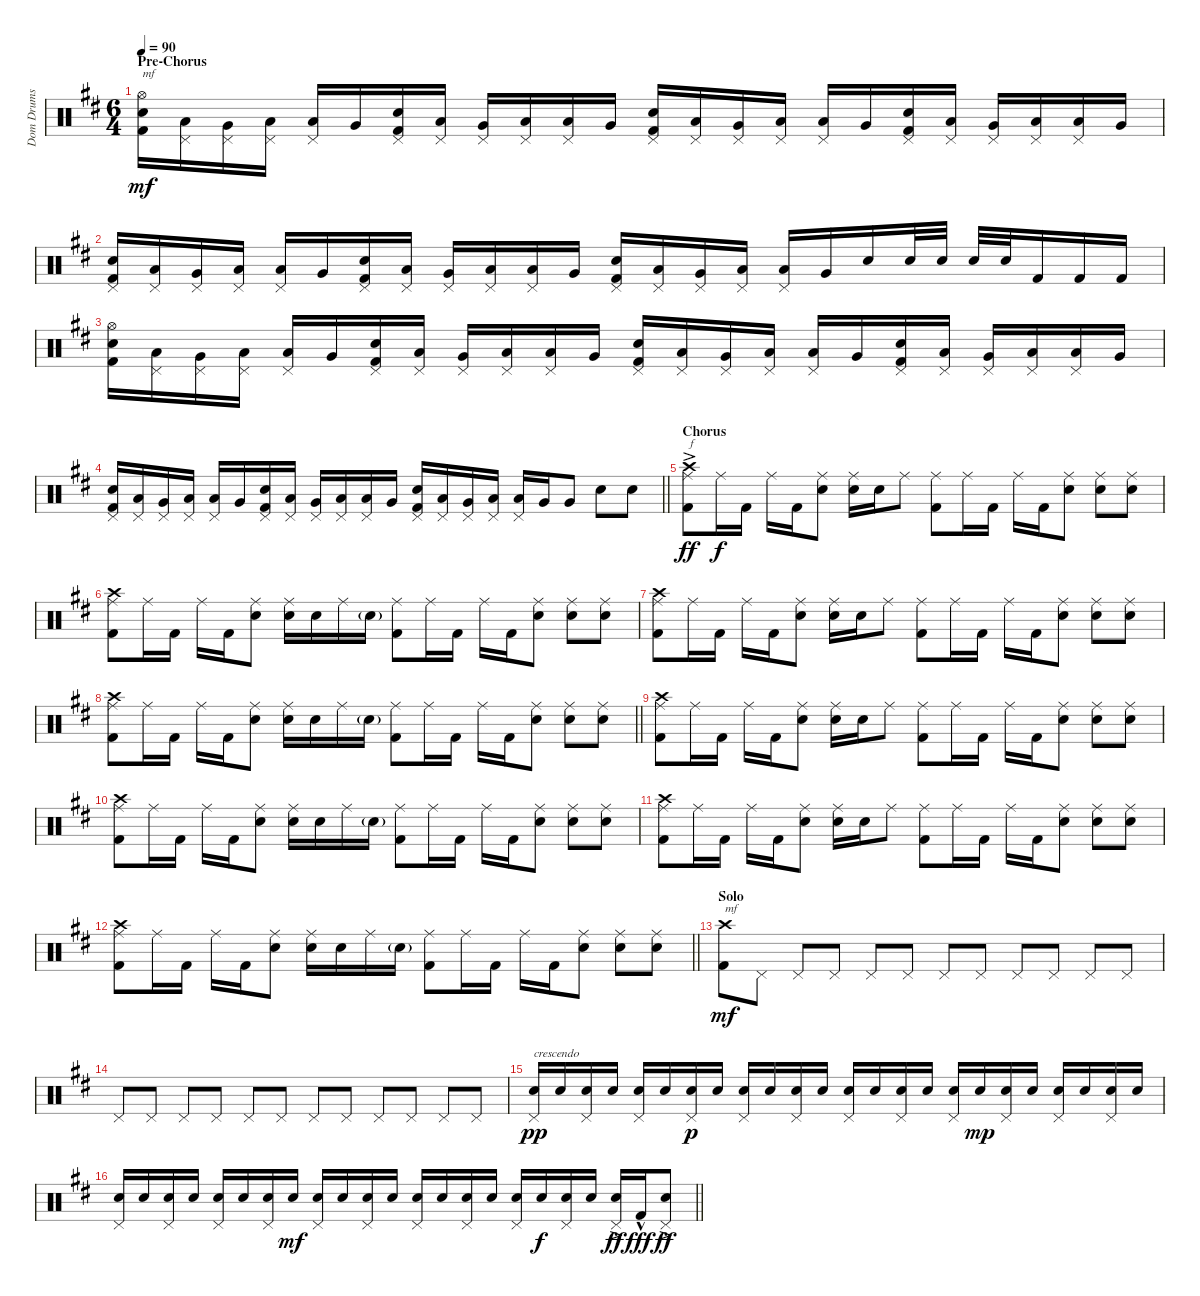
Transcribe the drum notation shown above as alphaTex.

\track ("Dom Drums" "Dom Drums") {instrument percussion}
\staff {score}
\articulation defaults
\ts (6 4)
\section ("" "Pre-Chorus")
\tempo 90
\clef neutral
\ks bminor
("Hi-Hat (open)" "Electric Snare (hit)" "Kick (hit) 2").16{txt "mf" dy mf} ("Pedal Hi-Hat (hit)" "Low Floor Tom (hit)").16 ("Pedal Hi-Hat (hit)" "Very Low Tom (hit)").16 ("Pedal Hi-Hat (hit)" "Low Tom (hit)").16 ("Pedal Hi-Hat (hit)" "Low Floor Tom (hit)").16 "Very Low Tom (hit)".16 ("Pedal Hi-Hat (hit)" "Electric Snare (hit)" "Kick (hit) 2").16 ("Pedal Hi-Hat (hit)" "Low Floor Tom (hit)").16 ("Pedal Hi-Hat (hit)" "Very Low Tom (hit)").16 ("Pedal Hi-Hat (hit)" "Low Tom (hit)").16 ("Pedal Hi-Hat (hit)" "Low Floor Tom (hit)").16 "Very Low Tom (hit)".16 ("Pedal Hi-Hat (hit)" "Electric Snare (hit)" "Kick (hit) 2").16 ("Pedal Hi-Hat (hit)" "Low Floor Tom (hit)").16 ("Pedal Hi-Hat (hit)" "Very Low Tom (hit)").16 ("Pedal Hi-Hat (hit)" "Low Tom (hit)").16 ("Pedal Hi-Hat (hit)" "Low Floor Tom (hit)").16 "Very Low Tom (hit)".16 ("Pedal Hi-Hat (hit)" "Electric Snare (hit)" "Kick (hit) 2").16 ("Pedal Hi-Hat (hit)" "Low Floor Tom (hit)").16 ("Pedal Hi-Hat (hit)" "Very Low Tom (hit)").16 ("Pedal Hi-Hat (hit)" "Low Tom (hit)").16 ("Pedal Hi-Hat (hit)" "Low Floor Tom (hit)").16 "Very Low Tom (hit)".16 |
("Pedal Hi-Hat (hit)" "Electric Snare (hit)" "Kick (hit) 2").16 ("Pedal Hi-Hat (hit)" "Low Floor Tom (hit)").16 ("Pedal Hi-Hat (hit)" "Very Low Tom (hit)").16 ("Pedal Hi-Hat (hit)" "Low Tom (hit)").16 ("Pedal Hi-Hat (hit)" "Low Floor Tom (hit)").16 "Very Low Tom (hit)".16 ("Pedal Hi-Hat (hit)" "Electric Snare (hit)" "Kick (hit) 2").16 ("Pedal Hi-Hat (hit)" "Low Floor Tom (hit)").16 ("Pedal Hi-Hat (hit)" "Very Low Tom (hit)").16 ("Pedal Hi-Hat (hit)" "Low Tom (hit)").16 ("Pedal Hi-Hat (hit)" "Low Floor Tom (hit)").16 "Very Low Tom (hit)".16 ("Pedal Hi-Hat (hit)" "Electric Snare (hit)" "Kick (hit) 2").16 ("Pedal Hi-Hat (hit)" "Low Floor Tom (hit)").16 ("Pedal Hi-Hat (hit)" "Very Low Tom (hit)").16 ("Pedal Hi-Hat (hit)" "Low Tom (hit)").16 ("Pedal Hi-Hat (hit)" "Low Floor Tom (hit)").16 "Very Low Tom (hit)".16 "Electric Snare (hit)".16 "Electric Snare (hit)".32 "Electric Snare (hit)".32 "Electric Snare (hit)".32 "Electric Snare (hit)".32 "Kick (hit) 2".16 "Kick (hit) 2".16 "Kick (hit) 2".16 |
("Hi-Hat (open)" "Electric Snare (hit)" "Kick (hit) 2").16 ("Pedal Hi-Hat (hit)" "Low Floor Tom (hit)").16 ("Pedal Hi-Hat (hit)" "Very Low Tom (hit)").16 ("Pedal Hi-Hat (hit)" "Low Tom (hit)").16 ("Pedal Hi-Hat (hit)" "Low Floor Tom (hit)").16 "Very Low Tom (hit)".16 ("Pedal Hi-Hat (hit)" "Electric Snare (hit)" "Kick (hit) 2").16 ("Pedal Hi-Hat (hit)" "Low Floor Tom (hit)").16 ("Pedal Hi-Hat (hit)" "Very Low Tom (hit)").16 ("Pedal Hi-Hat (hit)" "Low Tom (hit)").16 ("Pedal Hi-Hat (hit)" "Low Floor Tom (hit)").16 "Very Low Tom (hit)".16 ("Pedal Hi-Hat (hit)" "Electric Snare (hit)" "Kick (hit) 2").16 ("Pedal Hi-Hat (hit)" "Low Floor Tom (hit)").16 ("Pedal Hi-Hat (hit)" "Very Low Tom (hit)").16 ("Pedal Hi-Hat (hit)" "Low Tom (hit)").16 ("Pedal Hi-Hat (hit)" "Low Floor Tom (hit)").16 "Very Low Tom (hit)".16 ("Pedal Hi-Hat (hit)" "Electric Snare (hit)" "Kick (hit) 2").16 ("Pedal Hi-Hat (hit)" "Low Floor Tom (hit)").16 ("Pedal Hi-Hat (hit)" "Very Low Tom (hit)").16 ("Pedal Hi-Hat (hit)" "Low Tom (hit)").16 ("Pedal Hi-Hat (hit)" "Low Floor Tom (hit)").16 "Very Low Tom (hit)".16 |
\barLineRight lightlight
("Pedal Hi-Hat (hit)" "Electric Snare (hit)" "Kick (hit) 2").16 ("Pedal Hi-Hat (hit)" "Low Floor Tom (hit)").16 ("Pedal Hi-Hat (hit)" "Very Low Tom (hit)").16 ("Pedal Hi-Hat (hit)" "Low Tom (hit)").16 ("Pedal Hi-Hat (hit)" "Low Floor Tom (hit)").16 "Very Low Tom (hit)".16 ("Pedal Hi-Hat (hit)" "Electric Snare (hit)" "Kick (hit) 2").16 ("Pedal Hi-Hat (hit)" "Low Floor Tom (hit)").16 ("Pedal Hi-Hat (hit)" "Very Low Tom (hit)").16 ("Pedal Hi-Hat (hit)" "Low Tom (hit)").16 ("Pedal Hi-Hat (hit)" "Low Floor Tom (hit)").16 "Very Low Tom (hit)".16 ("Pedal Hi-Hat (hit)" "Electric Snare (hit)" "Kick (hit) 2").16 ("Pedal Hi-Hat (hit)" "Low Floor Tom (hit)").16 ("Pedal Hi-Hat (hit)" "Very Low Tom (hit)").16 ("Pedal Hi-Hat (hit)" "Low Tom (hit)").16 ("Pedal Hi-Hat (hit)" "Low Floor Tom (hit)").16 "Very Low Tom (hit)".16 "Very Low Tom (hit)".8 "Electric Snare (hit)".8 "Electric Snare (hit)".8 |
\section ("" "Chorus")
("Crash high (hit)"{ac} "Ride (middle)"{ac} "Kick (hit) 2"{ac}).8{txt "f" dy ff} "Ride (middle)".16{dy f} "Kick (hit) 2".16 "Ride (middle)".16 "Kick (hit) 2".16 ("Ride (middle)" "Electric Snare (hit)").8 ("Ride (middle)" "Electric Snare (hit)").16 "Electric Snare (hit)".16 "Ride (middle)".8 ("Ride (middle)" "Kick (hit) 2").8 "Ride (middle)".16 "Kick (hit) 2".16 "Ride (middle)".16 "Kick (hit) 2".16 ("Ride (middle)" "Electric Snare (hit)").8 ("Ride (middle)" "Electric Snare (hit)").8 ("Ride (middle)" "Electric Snare (hit)").8 |
("Crash high (hit)" "Ride (middle)" "Kick (hit) 2").8 "Ride (middle)".16 "Kick (hit) 2".16 "Ride (middle)".16 "Kick (hit) 2".16 ("Ride (middle)" "Electric Snare (hit)").8 ("Ride (middle)" "Electric Snare (hit)").16 "Electric Snare (hit)".16 "Ride (middle)".16 "Electric Snare (hit)"{g}.16 ("Ride (middle)" "Kick (hit) 2").8 "Ride (middle)".16 "Kick (hit) 2".16 "Ride (middle)".16 "Kick (hit) 2".16 ("Ride (middle)" "Electric Snare (hit)").8 ("Ride (middle)" "Electric Snare (hit)").8 ("Ride (middle)" "Electric Snare (hit)").8 |
("Crash high (hit)" "Ride (middle)" "Kick (hit) 2").8 "Ride (middle)".16 "Kick (hit) 2".16 "Ride (middle)".16 "Kick (hit) 2".16 ("Ride (middle)" "Electric Snare (hit)").8 ("Ride (middle)" "Electric Snare (hit)").16 "Electric Snare (hit)".16 "Ride (middle)".8 ("Ride (middle)" "Kick (hit) 2").8 "Ride (middle)".16 "Kick (hit) 2".16 "Ride (middle)".16 "Kick (hit) 2".16 ("Ride (middle)" "Electric Snare (hit)").8 ("Ride (middle)" "Electric Snare (hit)").8 ("Ride (middle)" "Electric Snare (hit)").8 |
\barLineRight lightlight
("Crash high (hit)" "Ride (middle)" "Kick (hit) 2").8 "Ride (middle)".16 "Kick (hit) 2".16 "Ride (middle)".16 "Kick (hit) 2".16 ("Ride (middle)" "Electric Snare (hit)").8 ("Ride (middle)" "Electric Snare (hit)").16 "Electric Snare (hit)".16 "Ride (middle)".16 "Electric Snare (hit)"{g}.16 ("Ride (middle)" "Kick (hit) 2").8 "Ride (middle)".16 "Kick (hit) 2".16 "Ride (middle)".16 "Kick (hit) 2".16 ("Ride (middle)" "Electric Snare (hit)").8 ("Ride (middle)" "Electric Snare (hit)").8 ("Ride (middle)" "Electric Snare (hit)").8 |
\section ("" "")
("Crash high (hit)" "Ride (middle)" "Kick (hit) 2").8 "Ride (middle)".16 "Kick (hit) 2".16 "Ride (middle)".16 "Kick (hit) 2".16 ("Ride (middle)" "Electric Snare (hit)").8 ("Ride (middle)" "Electric Snare (hit)").16 "Electric Snare (hit)".16 "Ride (middle)".8 ("Ride (middle)" "Kick (hit) 2").8 "Ride (middle)".16 "Kick (hit) 2".16 "Ride (middle)".16 "Kick (hit) 2".16 ("Ride (middle)" "Electric Snare (hit)").8 ("Ride (middle)" "Electric Snare (hit)").8 ("Ride (middle)" "Electric Snare (hit)").8 |
("Crash high (hit)" "Ride (middle)" "Kick (hit) 2").8 "Ride (middle)".16 "Kick (hit) 2".16 "Ride (middle)".16 "Kick (hit) 2".16 ("Ride (middle)" "Electric Snare (hit)").8 ("Ride (middle)" "Electric Snare (hit)").16 "Electric Snare (hit)".16 "Ride (middle)".16 "Electric Snare (hit)"{g}.16 ("Ride (middle)" "Kick (hit) 2").8 "Ride (middle)".16 "Kick (hit) 2".16 "Ride (middle)".16 "Kick (hit) 2".16 ("Ride (middle)" "Electric Snare (hit)").8 ("Ride (middle)" "Electric Snare (hit)").8 ("Ride (middle)" "Electric Snare (hit)").8 |
("Crash high (hit)" "Ride (middle)" "Kick (hit) 2").8 "Ride (middle)".16 "Kick (hit) 2".16 "Ride (middle)".16 "Kick (hit) 2".16 ("Ride (middle)" "Electric Snare (hit)").8 ("Ride (middle)" "Electric Snare (hit)").16 "Electric Snare (hit)".16 "Ride (middle)".8 ("Ride (middle)" "Kick (hit) 2").8 "Ride (middle)".16 "Kick (hit) 2".16 "Ride (middle)".16 "Kick (hit) 2".16 ("Ride (middle)" "Electric Snare (hit)").8 ("Ride (middle)" "Electric Snare (hit)").8 ("Ride (middle)" "Electric Snare (hit)").8 |
\barLineRight lightlight
("Crash high (hit)" "Ride (middle)" "Kick (hit) 2").8 "Ride (middle)".16 "Kick (hit) 2".16 "Ride (middle)".16 "Kick (hit) 2".16 ("Ride (middle)" "Electric Snare (hit)").8 ("Ride (middle)" "Electric Snare (hit)").16 "Electric Snare (hit)".16 "Ride (middle)".16 "Electric Snare (hit)"{g}.16 ("Ride (middle)" "Kick (hit) 2").8 "Ride (middle)".16 "Kick (hit) 2".16 "Ride (middle)".16 "Kick (hit) 2".16 ("Ride (middle)" "Electric Snare (hit)").8 ("Ride (middle)" "Electric Snare (hit)").8 ("Ride (middle)" "Electric Snare (hit)").8 |
\section ("" "Solo")
("Crash high (hit)" "Kick (hit) 2").8{txt "mf" dy mf} "Pedal Hi-Hat (hit)".8 "Pedal Hi-Hat (hit)".8 "Pedal Hi-Hat (hit)".8 "Pedal Hi-Hat (hit)".8 "Pedal Hi-Hat (hit)".8 "Pedal Hi-Hat (hit)".8 "Pedal Hi-Hat (hit)".8 "Pedal Hi-Hat (hit)".8 "Pedal Hi-Hat (hit)".8 "Pedal Hi-Hat (hit)".8 "Pedal Hi-Hat (hit)".8 |
"Pedal Hi-Hat (hit)".8 "Pedal Hi-Hat (hit)".8 "Pedal Hi-Hat (hit)".8 "Pedal Hi-Hat (hit)".8 "Pedal Hi-Hat (hit)".8 "Pedal Hi-Hat (hit)".8 "Pedal Hi-Hat (hit)".8 "Pedal Hi-Hat (hit)".8 "Pedal Hi-Hat (hit)".8 "Pedal Hi-Hat (hit)".8 "Pedal Hi-Hat (hit)".8 "Pedal Hi-Hat (hit)".8 |
("Pedal Hi-Hat (hit)" "Electric Snare (hit)").16{txt "crescendo" dy pp} "Electric Snare (hit)".16 ("Pedal Hi-Hat (hit)" "Electric Snare (hit)").16 "Electric Snare (hit)".16 ("Pedal Hi-Hat (hit)" "Electric Snare (hit)").16 "Electric Snare (hit)".16 ("Pedal Hi-Hat (hit)" "Electric Snare (hit)").16{dy p} "Electric Snare (hit)".16 ("Pedal Hi-Hat (hit)" "Electric Snare (hit)").16 "Electric Snare (hit)".16 ("Pedal Hi-Hat (hit)" "Electric Snare (hit)").16 "Electric Snare (hit)".16 ("Pedal Hi-Hat (hit)" "Electric Snare (hit)").16 "Electric Snare (hit)".16 ("Pedal Hi-Hat (hit)" "Electric Snare (hit)").16 "Electric Snare (hit)".16 ("Pedal Hi-Hat (hit)" "Electric Snare (hit)").16 "Electric Snare (hit)".16{dy mp} ("Pedal Hi-Hat (hit)" "Electric Snare (hit)").16 "Electric Snare (hit)".16 ("Pedal Hi-Hat (hit)" "Electric Snare (hit)").16 "Electric Snare (hit)".16 ("Pedal Hi-Hat (hit)" "Electric Snare (hit)").16 "Electric Snare (hit)".16 |
\barLineRight lightlight
("Pedal Hi-Hat (hit)" "Electric Snare (hit)").16 "Electric Snare (hit)".16 ("Pedal Hi-Hat (hit)" "Electric Snare (hit)").16 "Electric Snare (hit)".16 ("Pedal Hi-Hat (hit)" "Electric Snare (hit)").16 "Electric Snare (hit)".16 ("Pedal Hi-Hat (hit)" "Electric Snare (hit)").16 "Electric Snare (hit)".16{dy mf} ("Pedal Hi-Hat (hit)" "Electric Snare (hit)").16 "Electric Snare (hit)".16 ("Pedal Hi-Hat (hit)" "Electric Snare (hit)").16 "Electric Snare (hit)".16 ("Pedal Hi-Hat (hit)" "Electric Snare (hit)").16 "Electric Snare (hit)".16 ("Pedal Hi-Hat (hit)" "Electric Snare (hit)").16 "Electric Snare (hit)".16 ("Pedal Hi-Hat (hit)" "Electric Snare (hit)").16 "Electric Snare (hit)".16{dy f} ("Pedal Hi-Hat (hit)" "Electric Snare (hit)").16 "Electric Snare (hit)".16 ("Pedal Hi-Hat (hit)"{ac} "Electric Snare (hit)"{ac}).16{dy ff} "Kick (hit) 2"{hac}.16{dy fff} ("Pedal Hi-Hat (hit)"{ac} "Electric Snare (hit)"{ac}).8{dy ff}
